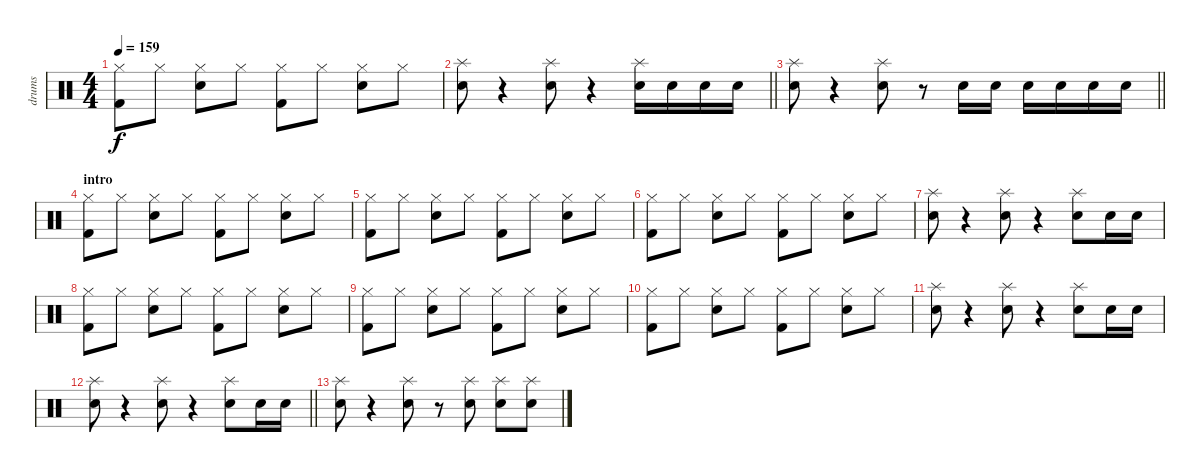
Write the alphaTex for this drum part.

\track ("drums" "drums") {instrument percussion}
\staff {score}
\articulation defaults
\ts (4 4)
\tempo 159
\clef neutral
\ks c
("Hi-Hat (closed)" "Kick (hit) 2").8{dy f} "Hi-Hat (closed)".8 ("Hi-Hat (closed)" "Electric Snare (hit)").8 "Hi-Hat (closed)".8 ("Hi-Hat (closed)" "Kick (hit) 2").8 "Hi-Hat (closed)".8 ("Hi-Hat (closed)" "Electric Snare (hit)").8 "Hi-Hat (closed)".8 |
\barLineRight lightlight
("Splash (hit)" "Electric Snare (hit)").8 r.4 ("Splash (hit)" "Electric Snare (hit)").8 r.4 ("Splash (hit)" "Electric Snare (hit)").16 "Electric Snare (hit)".16 "Electric Snare (hit)".16 "Electric Snare (hit)".16 |
\barLineRight lightlight
("Splash (hit)" "Electric Snare (hit)").8 r.4 ("Splash (hit)" "Electric Snare (hit)").8 r.8 "Electric Snare (hit)".16 "Electric Snare (hit)".16 "Electric Snare (hit)".16 "Electric Snare (hit)".16 "Electric Snare (hit)".16 "Electric Snare (hit)".16 |
\section ("" "intro")
("Hi-Hat (closed)" "Kick (hit) 2").8 "Hi-Hat (closed)".8 ("Hi-Hat (closed)" "Electric Snare (hit)").8 "Hi-Hat (closed)".8 ("Hi-Hat (closed)" "Kick (hit) 2").8 "Hi-Hat (closed)".8 ("Hi-Hat (closed)" "Electric Snare (hit)").8 "Hi-Hat (closed)".8 |
("Hi-Hat (closed)" "Kick (hit) 2").8 "Hi-Hat (closed)".8 ("Hi-Hat (closed)" "Electric Snare (hit)").8 "Hi-Hat (closed)".8 ("Hi-Hat (closed)" "Kick (hit) 2").8 "Hi-Hat (closed)".8 ("Hi-Hat (closed)" "Electric Snare (hit)").8 "Hi-Hat (closed)".8 |
("Hi-Hat (closed)" "Kick (hit) 2").8 "Hi-Hat (closed)".8 ("Hi-Hat (closed)" "Electric Snare (hit)").8 "Hi-Hat (closed)".8 ("Hi-Hat (closed)" "Kick (hit) 2").8 "Hi-Hat (closed)".8 ("Hi-Hat (closed)" "Electric Snare (hit)").8 "Hi-Hat (closed)".8 |
("Splash (hit)" "Electric Snare (hit)").8 r.4 ("Splash (hit)" "Electric Snare (hit)").8 r.4 ("Splash (hit)" "Electric Snare (hit)").8 "Electric Snare (hit)".16 "Electric Snare (hit)".16 |
("Hi-Hat (closed)" "Kick (hit) 2").8 "Hi-Hat (closed)".8 ("Hi-Hat (closed)" "Electric Snare (hit)").8 "Hi-Hat (closed)".8 ("Hi-Hat (closed)" "Kick (hit) 2").8 "Hi-Hat (closed)".8 ("Hi-Hat (closed)" "Electric Snare (hit)").8 "Hi-Hat (closed)".8 |
("Hi-Hat (closed)" "Kick (hit) 2").8 "Hi-Hat (closed)".8 ("Hi-Hat (closed)" "Electric Snare (hit)").8 "Hi-Hat (closed)".8 ("Hi-Hat (closed)" "Kick (hit) 2").8 "Hi-Hat (closed)".8 ("Hi-Hat (closed)" "Electric Snare (hit)").8 "Hi-Hat (closed)".8 |
("Hi-Hat (closed)" "Kick (hit) 2").8 "Hi-Hat (closed)".8 ("Hi-Hat (closed)" "Electric Snare (hit)").8 "Hi-Hat (closed)".8 ("Hi-Hat (closed)" "Kick (hit) 2").8 "Hi-Hat (closed)".8 ("Hi-Hat (closed)" "Electric Snare (hit)").8 "Hi-Hat (closed)".8 |
("Splash (hit)" "Electric Snare (hit)").8 r.4 ("Splash (hit)" "Electric Snare (hit)").8 r.4 ("Splash (hit)" "Electric Snare (hit)").8 "Electric Snare (hit)".16 "Electric Snare (hit)".16 |
\barLineRight lightlight
("Splash (hit)" "Electric Snare (hit)").8 r.4 ("Splash (hit)" "Electric Snare (hit)").8 r.4 ("Splash (hit)" "Electric Snare (hit)").8 "Electric Snare (hit)".16 "Electric Snare (hit)".16 |
("Splash (hit)" "Electric Snare (hit)").8 r.4 ("Splash (hit)" "Electric Snare (hit)").8 r.8 ("Splash (hit)" "Electric Snare (hit)").8 ("Splash (hit)" "Electric Snare (hit)").8 ("Splash (hit)" "Electric Snare (hit)").8
